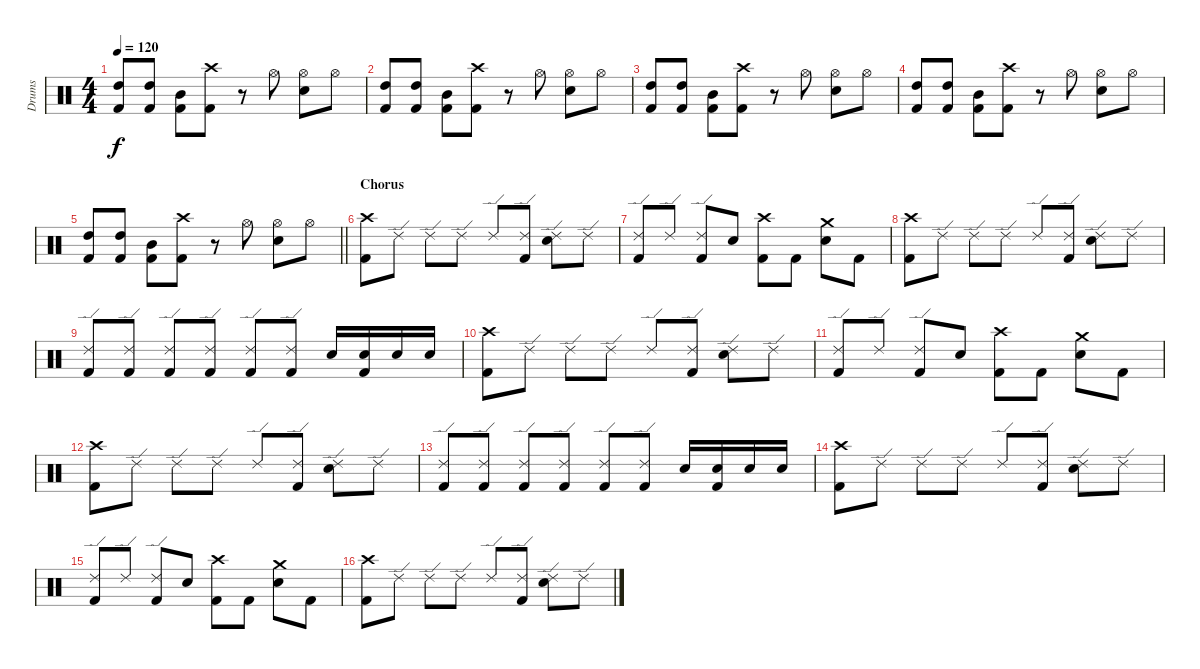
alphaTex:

\track ("Drums" "Drums") {instrument percussion}
\staff {score}
\articulation defaults
\ts (4 4)
\tempo 120
\clef neutral
\ks c
("High Tom (hit)" "Kick (hit) 2").8{dy f} ("High Tom (hit)" "Kick (hit) 2").8 ("Mid Tom (hit)" "Kick (hit) 2").8 ("Crash high (hit)" "Kick (hit) 2").8 r.8 "Hi-Hat (open)".8 ("Hi-Hat (open)" "Snare (hit) 2").8 "Hi-Hat (open)".8 |
("High Tom (hit)" "Kick (hit) 2").8 ("High Tom (hit)" "Kick (hit) 2").8 ("Mid Tom (hit)" "Kick (hit) 2").8 ("Crash high (hit)" "Kick (hit) 2").8 r.8 "Hi-Hat (open)".8 ("Hi-Hat (open)" "Snare (hit) 2").8 "Hi-Hat (open)".8 |
("High Tom (hit)" "Kick (hit) 2").8 ("High Tom (hit)" "Kick (hit) 2").8 ("Mid Tom (hit)" "Kick (hit) 2").8 ("Crash high (hit)" "Kick (hit) 2").8 r.8 "Hi-Hat (open)".8 ("Hi-Hat (open)" "Snare (hit) 2").8 "Hi-Hat (open)".8 |
("High Tom (hit)" "Kick (hit) 2").8 ("High Tom (hit)" "Kick (hit) 2").8 ("Mid Tom (hit)" "Kick (hit) 2").8 ("Crash high (hit)" "Kick (hit) 2").8 r.8 "Hi-Hat (open)".8 ("Hi-Hat (open)" "Snare (hit) 2").8 "Hi-Hat (open)".8 |
\barLineRight lightlight
("High Tom (hit)" "Kick (hit) 2").8 ("High Tom (hit)" "Kick (hit) 2").8 ("Mid Tom (hit)" "Kick (hit) 2").8 ("Crash high (hit)" "Kick (hit) 2").8 r.8 "Hi-Hat (open)".8 ("Hi-Hat (open)" "Snare (hit) 2").8 "Hi-Hat (open)".8 |
\section ("" "Chorus")
("Crash high (hit)" "Kick (hit) 2").8 "Ride (edge) 2".8 "Ride (edge) 2".8 "Ride (edge) 2".8 "Ride (edge) 2".8 ("Ride (edge) 2" "Kick (hit) 2").8 ("Ride (edge) 2" "Snare (hit) 2").8 "Ride (edge) 2".8 |
("Ride (edge) 2" "Kick (hit) 2").8 "Ride (edge) 2".8 ("Ride (edge) 2" "Kick (hit) 2").8 "Snare (hit) 2".8 ("Crash high (hit)" "Kick (hit) 2").8 "Kick (hit) 2".8 ("Crash medium (hit)" "Snare (hit) 2").8 "Kick (hit) 2".8 |
("Crash high (hit)" "Kick (hit) 2").8 "Ride (edge) 2".8 "Ride (edge) 2".8 "Ride (edge) 2".8 "Ride (edge) 2".8 ("Ride (edge) 2" "Kick (hit) 2").8 ("Ride (edge) 2" "Snare (hit) 2").8 "Ride (edge) 2".8 |
("Ride (edge) 2" "Kick (hit) 2").8 ("Ride (edge) 2" "Kick (hit) 2").8 ("Ride (edge) 2" "Kick (hit) 2").8 ("Ride (edge) 2" "Kick (hit) 2").8 ("Ride (edge) 2" "Kick (hit) 2").8 ("Ride (edge) 2" "Kick (hit) 2").8 "Snare (hit) 2".16 ("Snare (hit) 2" "Kick (hit) 2").16 "Snare (hit) 2".16 "Snare (hit) 2".16 |
("Crash high (hit)" "Kick (hit) 2").8 "Ride (edge) 2".8 "Ride (edge) 2".8 "Ride (edge) 2".8 "Ride (edge) 2".8 ("Ride (edge) 2" "Kick (hit) 2").8 ("Ride (edge) 2" "Snare (hit) 2").8 "Ride (edge) 2".8 |
("Ride (edge) 2" "Kick (hit) 2").8 "Ride (edge) 2".8 ("Ride (edge) 2" "Kick (hit) 2").8 "Snare (hit) 2".8 ("Crash high (hit)" "Kick (hit) 2").8 "Kick (hit) 2".8 ("Crash medium (hit)" "Snare (hit) 2").8 "Kick (hit) 2".8 |
("Crash high (hit)" "Kick (hit) 2").8 "Ride (edge) 2".8 "Ride (edge) 2".8 "Ride (edge) 2".8 "Ride (edge) 2".8 ("Ride (edge) 2" "Kick (hit) 2").8 ("Ride (edge) 2" "Snare (hit) 2").8 "Ride (edge) 2".8 |
("Ride (edge) 2" "Kick (hit) 2").8 ("Ride (edge) 2" "Kick (hit) 2").8 ("Ride (edge) 2" "Kick (hit) 2").8 ("Ride (edge) 2" "Kick (hit) 2").8 ("Ride (edge) 2" "Kick (hit) 2").8 ("Ride (edge) 2" "Kick (hit) 2").8 "Snare (hit) 2".16 ("Snare (hit) 2" "Kick (hit) 2").16 "Snare (hit) 2".16 "Snare (hit) 2".16 |
("Crash high (hit)" "Kick (hit) 2").8 "Ride (edge) 2".8 "Ride (edge) 2".8 "Ride (edge) 2".8 "Ride (edge) 2".8 ("Ride (edge) 2" "Kick (hit) 2").8 ("Ride (edge) 2" "Snare (hit) 2").8 "Ride (edge) 2".8 |
("Ride (edge) 2" "Kick (hit) 2").8 "Ride (edge) 2".8 ("Ride (edge) 2" "Kick (hit) 2").8 "Snare (hit) 2".8 ("Crash high (hit)" "Kick (hit) 2").8 "Kick (hit) 2".8 ("Crash medium (hit)" "Snare (hit) 2").8 "Kick (hit) 2".8 |
("Crash high (hit)" "Kick (hit) 2").8 "Ride (edge) 2".8 "Ride (edge) 2".8 "Ride (edge) 2".8 "Ride (edge) 2".8 ("Ride (edge) 2" "Kick (hit) 2").8 ("Ride (edge) 2" "Snare (hit) 2").8 "Ride (edge) 2".8
